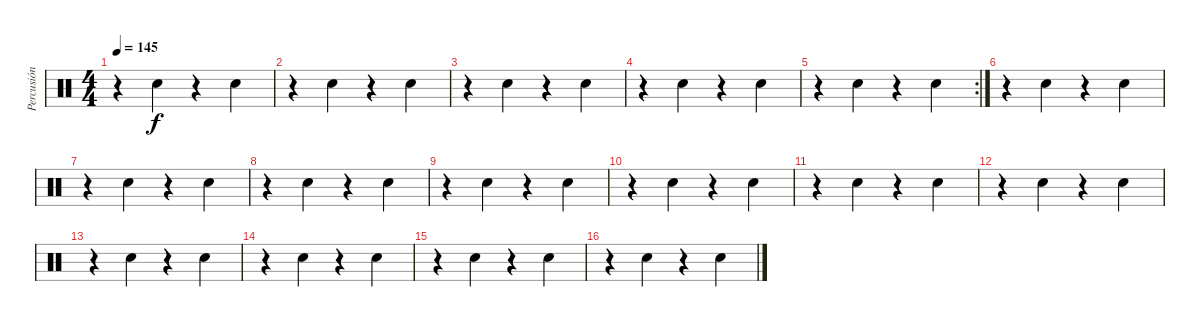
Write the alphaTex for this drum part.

\track ("Percusión" "Percusión") {instrument percussion}
\staff {score}
\articulation defaults
\ts (4 4)
\tempo 145
\clef neutral
\ks c
r.4{dy f} "Snare (hit) 2".4 r.4 "Snare (hit) 2".4 |
r.4 "Snare (hit) 2".4 r.4 "Snare (hit) 2".4 |
r.4 "Snare (hit) 2".4 r.4 "Snare (hit) 2".4 |
r.4 "Snare (hit) 2".4 r.4 "Snare (hit) 2".4 |
\rc 2
r.4 "Snare (hit) 2".4 r.4 "Snare (hit) 2".4 |
r.4 "Snare (hit) 2".4 r.4 "Snare (hit) 2".4 |
r.4 "Snare (hit) 2".4 r.4 "Snare (hit) 2".4 |
r.4 "Snare (hit) 2".4 r.4 "Snare (hit) 2".4 |
r.4 "Snare (hit) 2".4 r.4 "Snare (hit) 2".4 |
r.4 "Snare (hit) 2".4 r.4 "Snare (hit) 2".4 |
r.4 "Snare (hit) 2".4 r.4 "Snare (hit) 2".4 |
r.4 "Snare (hit) 2".4 r.4 "Snare (hit) 2".4 |
r.4 "Snare (hit) 2".4 r.4 "Snare (hit) 2".4 |
r.4 "Snare (hit) 2".4 r.4 "Snare (hit) 2".4 |
r.4 "Snare (hit) 2".4 r.4 "Snare (hit) 2".4 |
r.4 "Snare (hit) 2".4 r.4 "Snare (hit) 2".4
